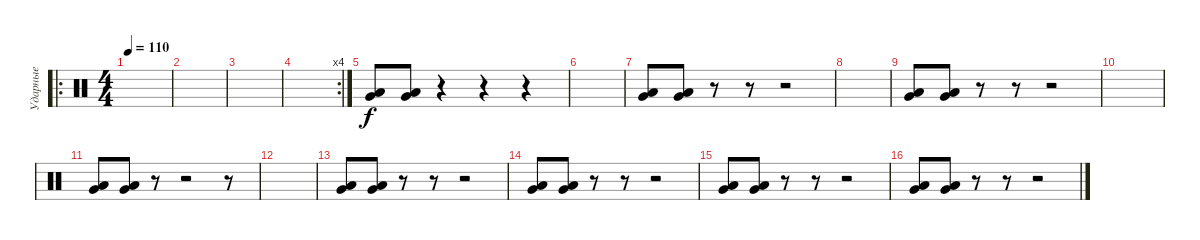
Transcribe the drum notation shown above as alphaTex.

\track ("Ударные" "Ударные") {instrument percussion}
\staff {score}
\articulation defaults
\ro
\ts (4 4)
\tempo 110
\clef neutral
\ks c
|
|
|
\rc 4
|
("Very Low Tom (hit)" "Low Floor Tom (hit)").8 ("Very Low Tom (hit)" "Low Floor Tom (hit)").8 r.4 r.4 r.4 |
|
("Very Low Tom (hit)" "Low Floor Tom (hit)").8 ("Very Low Tom (hit)" "Low Floor Tom (hit)").8 r.8 r.8 r.2 |
|
("Very Low Tom (hit)" "Low Floor Tom (hit)").8 ("Very Low Tom (hit)" "Low Floor Tom (hit)").8 r.8 r.8 r.2 |
|
("Very Low Tom (hit)" "Low Floor Tom (hit)").8 ("Very Low Tom (hit)" "Low Floor Tom (hit)").8 r.8 r.2 r.8 |
|
("Very Low Tom (hit)" "Low Floor Tom (hit)").8 ("Very Low Tom (hit)" "Low Floor Tom (hit)").8 r.8 r.8 r.2 |
("Very Low Tom (hit)" "Low Floor Tom (hit)").8 ("Very Low Tom (hit)" "Low Floor Tom (hit)").8 r.8 r.8 r.2 |
("Very Low Tom (hit)" "Low Floor Tom (hit)").8 ("Very Low Tom (hit)" "Low Floor Tom (hit)").8 r.8 r.8 r.2 |
("Very Low Tom (hit)" "Low Floor Tom (hit)").8 ("Very Low Tom (hit)" "Low Floor Tom (hit)").8 r.8 r.8 r.2
